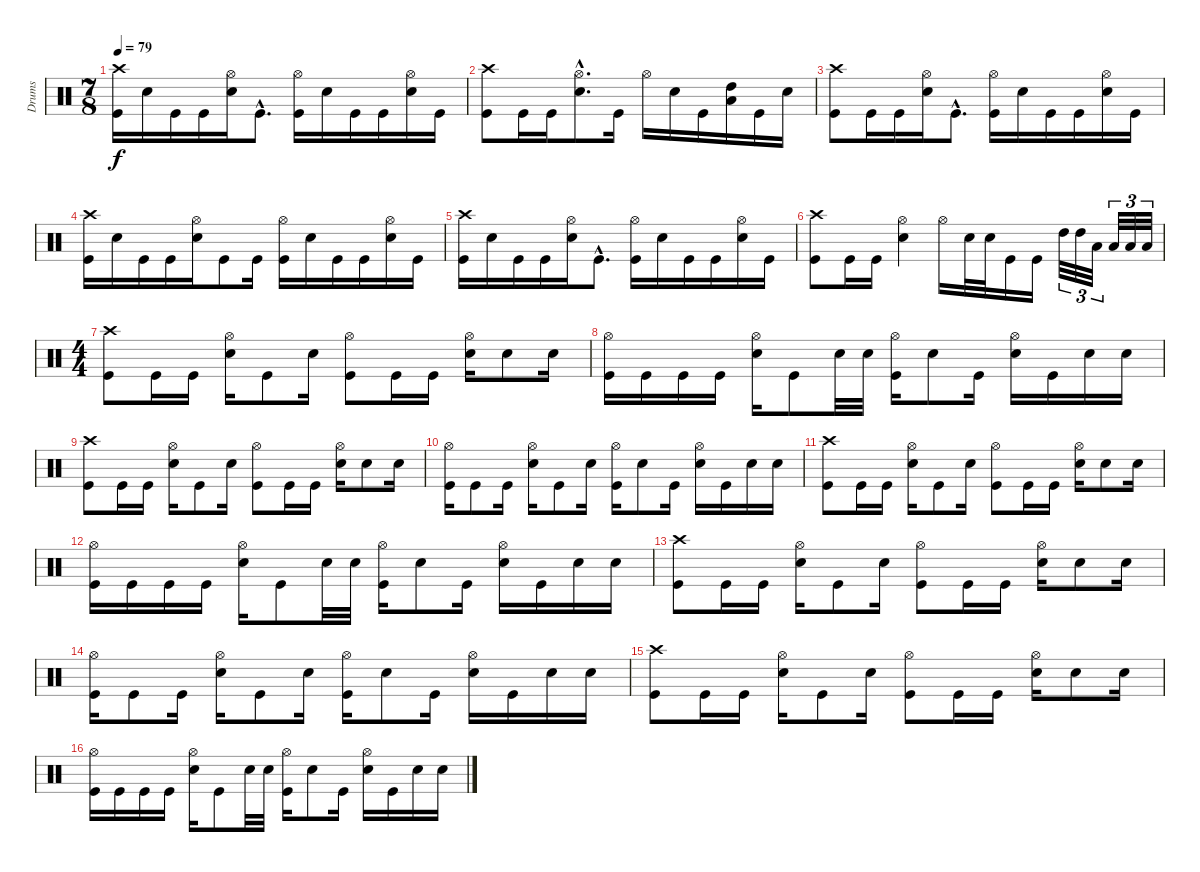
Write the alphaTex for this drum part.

\track ("Drums" "Drums") {instrument percussion}
\staff {score}
\articulation defaults
\ts (7 8)
\tempo 79
\clef neutral
\ks c
("Crash high (hit)" "Kick (hit)").16{dy f} "Electric Snare (hit)".16 "Kick (hit)".16 "Kick (hit)".16 ("Hi-Hat (open)" "Electric Snare (hit)").16 "Kick (hit)"{hac}.8{d} ("Hi-Hat (open)" "Kick (hit)").16 "Electric Snare (hit)".16 "Kick (hit)".16 "Kick (hit)".16 ("Hi-Hat (open)" "Electric Snare (hit)").16 "Kick (hit)".16 |
("Crash high (hit)" "Kick (hit)").8 "Kick (hit)".16 "Kick (hit)".16 ("Hi-Hat (open)"{hac} "Electric Snare (hit)"{hac}).8{d} "Kick (hit)".16 "Hi-Hat (open)".16 "Electric Snare (hit)".16 "Kick (hit)".16 ("High Tom (hit)" "Low Floor Tom (hit)").16 "Kick (hit)".16 "Electric Snare (hit)".16 |
("Crash high (hit)" "Kick (hit)").8 "Kick (hit)".16 "Kick (hit)".16 ("Hi-Hat (open)" "Electric Snare (hit)").16 "Kick (hit)"{hac}.8{d} ("Hi-Hat (open)" "Kick (hit)").16 "Electric Snare (hit)".16 "Kick (hit)".16 "Kick (hit)".16 ("Hi-Hat (open)" "Electric Snare (hit)").16 "Kick (hit)".16 |
("Crash high (hit)" "Kick (hit)").16 "Electric Snare (hit)".16 "Kick (hit)".16 "Kick (hit)".16 ("Hi-Hat (open)" "Electric Snare (hit)").16 "Kick (hit)".8 "Kick (hit)".16 ("Hi-Hat (open)" "Kick (hit)").16 "Electric Snare (hit)".16 "Kick (hit)".16 "Kick (hit)".16 ("Hi-Hat (open)" "Electric Snare (hit)").16 "Kick (hit)".16 |
("Crash high (hit)" "Kick (hit)").16 "Electric Snare (hit)".16 "Kick (hit)".16 "Kick (hit)".16 ("Hi-Hat (open)" "Electric Snare (hit)").16 "Kick (hit)"{hac}.8{d} ("Hi-Hat (open)" "Kick (hit)").16 "Electric Snare (hit)".16 "Kick (hit)".16 "Kick (hit)".16 ("Hi-Hat (open)" "Electric Snare (hit)").16 "Kick (hit)".16 |
("Crash high (hit)" "Kick (hit)").8 "Kick (hit)".16 "Kick (hit)".16 ("Hi-Hat (open)" "Electric Snare (hit)").4 "Hi-Hat (open)".16 "Electric Snare (hit)".32 "Electric Snare (hit)".32 "Kick (hit)".16 "Kick (hit)".16 "High Tom (hit)".32{tu (3 2)} "High Tom (hit)".32{tu (3 2)} "Low Tom (hit)".32{tu (3 2)} "Low Tom (hit)".32{tu (3 2)} "Low Floor Tom (hit)".32{tu (3 2)} "Low Floor Tom (hit)".32{tu (3 2)} |
\ts (4 4)
("Crash high (hit)" "Kick (hit)").8 "Kick (hit)".16 "Kick (hit)".16 ("Hi-Hat (open)" "Electric Snare (hit)").16 "Kick (hit)".8 "Electric Snare (hit)".16 ("Hi-Hat (open)" "Kick (hit)").8 "Kick (hit)".16 "Kick (hit)".16 ("Hi-Hat (open)" "Electric Snare (hit)").16 "Electric Snare (hit)".8 "Electric Snare (hit)".16 |
("Hi-Hat (open)" "Kick (hit)").16 "Kick (hit)".16 "Kick (hit)".16 "Kick (hit)".16 ("Hi-Hat (open)" "Electric Snare (hit)").16 "Kick (hit)".8 "Electric Snare (hit)".32 "Electric Snare (hit)".32 ("Hi-Hat (open)" "Kick (hit)").16 "Electric Snare (hit)".8 "Kick (hit)".16 ("Hi-Hat (open)" "Electric Snare (hit)").16 "Kick (hit)".16 "Electric Snare (hit)".16 "Electric Snare (hit)".16 |
("Crash high (hit)" "Kick (hit)").8 "Kick (hit)".16 "Kick (hit)".16 ("Hi-Hat (open)" "Electric Snare (hit)").16 "Kick (hit)".8 "Electric Snare (hit)".16 ("Hi-Hat (open)" "Kick (hit)").8 "Kick (hit)".16 "Kick (hit)".16 ("Hi-Hat (open)" "Electric Snare (hit)").16 "Electric Snare (hit)".8 "Electric Snare (hit)".16 |
("Hi-Hat (open)" "Kick (hit)").16 "Kick (hit)".8 "Kick (hit)".16 ("Hi-Hat (open)" "Electric Snare (hit)").16 "Kick (hit)".8 "Electric Snare (hit)".16 ("Hi-Hat (open)" "Kick (hit)").16 "Electric Snare (hit)".8 "Kick (hit)".16 ("Hi-Hat (open)" "Electric Snare (hit)").16 "Kick (hit)".16 "Electric Snare (hit)".16 "Electric Snare (hit)".16 |
("Crash high (hit)" "Kick (hit)").8 "Kick (hit)".16 "Kick (hit)".16 ("Hi-Hat (open)" "Electric Snare (hit)").16 "Kick (hit)".8 "Electric Snare (hit)".16 ("Hi-Hat (open)" "Kick (hit)").8 "Kick (hit)".16 "Kick (hit)".16 ("Hi-Hat (open)" "Electric Snare (hit)").16 "Electric Snare (hit)".8 "Electric Snare (hit)".16 |
("Hi-Hat (open)" "Kick (hit)").16 "Kick (hit)".16 "Kick (hit)".16 "Kick (hit)".16 ("Hi-Hat (open)" "Electric Snare (hit)").16 "Kick (hit)".8 "Electric Snare (hit)".32 "Electric Snare (hit)".32 ("Hi-Hat (open)" "Kick (hit)").16 "Electric Snare (hit)".8 "Kick (hit)".16 ("Hi-Hat (open)" "Electric Snare (hit)").16 "Kick (hit)".16 "Electric Snare (hit)".16 "Electric Snare (hit)".16 |
("Crash high (hit)" "Kick (hit)").8 "Kick (hit)".16 "Kick (hit)".16 ("Hi-Hat (open)" "Electric Snare (hit)").16 "Kick (hit)".8 "Electric Snare (hit)".16 ("Hi-Hat (open)" "Kick (hit)").8 "Kick (hit)".16 "Kick (hit)".16 ("Hi-Hat (open)" "Electric Snare (hit)").16 "Electric Snare (hit)".8 "Electric Snare (hit)".16 |
("Hi-Hat (open)" "Kick (hit)").16 "Kick (hit)".8 "Kick (hit)".16 ("Hi-Hat (open)" "Electric Snare (hit)").16 "Kick (hit)".8 "Electric Snare (hit)".16 ("Hi-Hat (open)" "Kick (hit)").16 "Electric Snare (hit)".8 "Kick (hit)".16 ("Hi-Hat (open)" "Electric Snare (hit)").16 "Kick (hit)".16 "Electric Snare (hit)".16 "Electric Snare (hit)".16 |
("Crash high (hit)" "Kick (hit)").8 "Kick (hit)".16 "Kick (hit)".16 ("Hi-Hat (open)" "Electric Snare (hit)").16 "Kick (hit)".8 "Electric Snare (hit)".16 ("Hi-Hat (open)" "Kick (hit)").8 "Kick (hit)".16 "Kick (hit)".16 ("Hi-Hat (open)" "Electric Snare (hit)").16 "Electric Snare (hit)".8 "Electric Snare (hit)".16 |
("Hi-Hat (open)" "Kick (hit)").16 "Kick (hit)".16 "Kick (hit)".16 "Kick (hit)".16 ("Hi-Hat (open)" "Electric Snare (hit)").16 "Kick (hit)".8 "Electric Snare (hit)".32 "Electric Snare (hit)".32 ("Hi-Hat (open)" "Kick (hit)").16 "Electric Snare (hit)".8 "Kick (hit)".16 ("Hi-Hat (open)" "Electric Snare (hit)").16 "Kick (hit)".16 "Electric Snare (hit)".16 "Electric Snare (hit)".16
